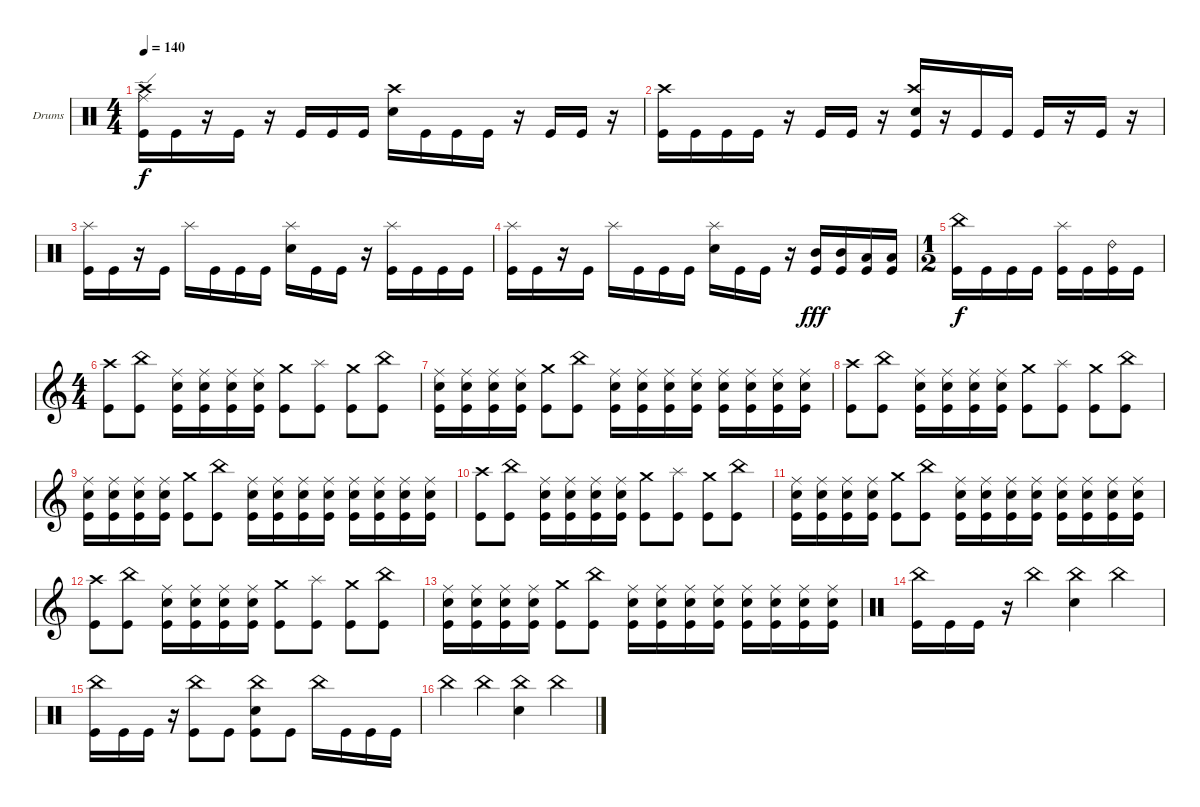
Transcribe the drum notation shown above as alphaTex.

\defaultSystemsLayout 4
\bracketExtendMode groupsimilarinstruments
\firstSystemTrackNameOrientation horizontal
\otherSystemsTrackNameOrientation horizontal
\track ("Drumkit" "Drums") {instrument percussion}
\staff {score}
\articulation defaults
\ts (4 4)
\tempo 140
\clef neutral
\scale
0.333333
\ks c
("Kick (hit)" "Crash high (hit)" "Ride (edge)").16{dy f} "Kick (hit)".16 r.16 "Kick (hit)".16 r.16 "Kick (hit)".16 "Kick (hit)".16 "Kick (hit)".16 ("Snare (hit) 2" "Crash high (hit)").16 "Kick (hit)".16 "Kick (hit)".16 "Kick (hit)".16 r.16 "Kick (hit)".16 "Kick (hit)".16 r.16 |
\scale
0.333333 ("Kick (hit)" "Crash high (hit)").16 "Kick (hit)".16 "Kick (hit)".16 "Kick (hit)".16 r.16 "Kick (hit)".16 "Kick (hit)".16 r.16 ("Kick (hit)" "Snare (hit) 2" "Crash high (hit)").16 r.16 "Kick (hit)".16 "Kick (hit)".16 "Kick (hit)".16 r.16 "Kick (hit)".16 r.16 |
\scale
0.333333 ("Kick (hit)" "Splash (hit)").16 "Kick (hit)".16 r.16 "Kick (hit)".16 "Splash (hit)".16 "Kick (hit)".16 "Kick (hit)".16 "Kick (hit)".16 ("Splash (hit)" "Snare (hit) 2").16 "Kick (hit)".16 "Kick (hit)".16 r.16 ("Splash (hit)" "Kick (hit)").16 "Kick (hit)".16 "Kick (hit)".16 "Kick (hit)".16 |
\scale
0.218391 ("Kick (hit)" "Splash (hit)").16 "Kick (hit)".16 r.16 "Kick (hit)".16 "Splash (hit)".16 "Kick (hit)".16 "Kick (hit)".16 "Kick (hit)".16 ("Splash (hit)" "Snare (hit) 2").16 "Kick (hit)".16 "Kick (hit)".16 r.16 ("Kick (hit)" "Mid Tom (hit)").16{dy fff} ("Kick (hit)" "Mid Tom (hit)").16 ("Kick (hit)" "Low Tom (hit)").16 ("Kick (hit)" "Low Tom (hit)").16 |
\ts (1 2)
\scale
0.390805 ("Kick (hit)" "China (hit)").16{dy f} "Kick (hit)".16 "Kick (hit)".16 "Kick (hit)".16 ("Kick (hit)" "Splash (hit)").16 "Kick (hit)".16 ("Kick (hit)" "Ride (bell) 2").16 "Kick (hit)".16 |
\ts (4 4)
\clef g2
\scale
0.390805 ("Kick (hit)" "Crash high (hit)").8 ("Kick (hit)" "China (hit)").8 ("Kick (hit)" "Snare (hit) 2" "Ride (middle)").16 ("Kick (hit)" "Snare (hit) 2" "Ride (middle)").16 ("Kick (hit)" "Snare (hit) 2" "Ride (middle)").16 ("Kick (hit)" "Snare (hit) 2" "Ride (middle)").16 ("Kick (hit)" "Crash medium (hit)").8 ("Kick (hit)" "Splash (hit)").8 ("Kick (hit)" "Crash medium (hit)").8 ("Kick (hit)" "China (hit)").8 |
\scale
0.333333 ("Kick (hit)" "Snare (hit) 2" "Ride (middle)").16 ("Kick (hit)" "Snare (hit) 2" "Ride (middle)").16 ("Kick (hit)" "Snare (hit) 2" "Ride (middle)").16 ("Kick (hit)" "Snare (hit) 2" "Ride (middle)").16 ("Kick (hit)" "Crash medium (hit)").8 ("Kick (hit)" "China (hit)").8 ("Kick (hit)" "Snare (hit) 2" "Ride (middle)").16 ("Kick (hit)" "Snare (hit) 2" "Ride (middle)").16 ("Kick (hit)" "Snare (hit) 2" "Ride (middle)").16 ("Kick (hit)" "Snare (hit) 2" "Ride (middle)").16 ("Kick (hit)" "Snare (hit) 2" "Ride (middle)").16 ("Kick (hit)" "Snare (hit) 2" "Ride (middle)").16 ("Kick (hit)" "Snare (hit) 2" "Ride (middle)").16 ("Kick (hit)" "Snare (hit) 2" "Ride (middle)").16 |
\scale
0.333333 ("Kick (hit)" "Crash high (hit)").8 ("Kick (hit)" "China (hit)").8 ("Kick (hit)" "Snare (hit) 2" "Ride (middle)").16 ("Kick (hit)" "Snare (hit) 2" "Ride (middle)").16 ("Kick (hit)" "Snare (hit) 2" "Ride (middle)").16 ("Kick (hit)" "Snare (hit) 2" "Ride (middle)").16 ("Kick (hit)" "Crash medium (hit)").8 ("Kick (hit)" "Splash (hit)").8 ("Kick (hit)" "Crash medium (hit)").8 ("Kick (hit)" "China (hit)").8 |
\scale
0.333333 ("Kick (hit)" "Snare (hit) 2" "Ride (middle)").16 ("Kick (hit)" "Snare (hit) 2" "Ride (middle)").16 ("Kick (hit)" "Snare (hit) 2" "Ride (middle)").16 ("Kick (hit)" "Snare (hit) 2" "Ride (middle)").16 ("Kick (hit)" "Crash medium (hit)").8 ("Kick (hit)" "China (hit)").8 ("Kick (hit)" "Snare (hit) 2" "Ride (middle)").16 ("Kick (hit)" "Snare (hit) 2" "Ride (middle)").16 ("Kick (hit)" "Snare (hit) 2" "Ride (middle)").16 ("Kick (hit)" "Snare (hit) 2" "Ride (middle)").16 ("Kick (hit)" "Snare (hit) 2" "Ride (middle)").16 ("Kick (hit)" "Snare (hit) 2" "Ride (middle)").16 ("Kick (hit)" "Snare (hit) 2" "Ride (middle)").16 ("Kick (hit)" "Snare (hit) 2" "Ride (middle)").16 |
\scale
0.333333 ("Kick (hit)" "Crash high (hit)").8 ("Kick (hit)" "China (hit)").8 ("Kick (hit)" "Snare (hit) 2" "Ride (middle)").16 ("Kick (hit)" "Snare (hit) 2" "Ride (middle)").16 ("Kick (hit)" "Snare (hit) 2" "Ride (middle)").16 ("Kick (hit)" "Snare (hit) 2" "Ride (middle)").16 ("Kick (hit)" "Crash medium (hit)").8 ("Kick (hit)" "Splash (hit)").8 ("Kick (hit)" "Crash medium (hit)").8 ("Kick (hit)" "China (hit)").8 |
\scale
0.333333 ("Kick (hit)" "Snare (hit) 2" "Ride (middle)").16 ("Kick (hit)" "Snare (hit) 2" "Ride (middle)").16 ("Kick (hit)" "Snare (hit) 2" "Ride (middle)").16 ("Kick (hit)" "Snare (hit) 2" "Ride (middle)").16 ("Kick (hit)" "Crash medium (hit)").8 ("Kick (hit)" "China (hit)").8 ("Kick (hit)" "Snare (hit) 2" "Ride (middle)").16 ("Kick (hit)" "Snare (hit) 2" "Ride (middle)").16 ("Kick (hit)" "Snare (hit) 2" "Ride (middle)").16 ("Kick (hit)" "Snare (hit) 2" "Ride (middle)").16 ("Kick (hit)" "Snare (hit) 2" "Ride (middle)").16 ("Kick (hit)" "Snare (hit) 2" "Ride (middle)").16 ("Kick (hit)" "Snare (hit) 2" "Ride (middle)").16 ("Kick (hit)" "Snare (hit) 2" "Ride (middle)").16 |
\scale
0.333333 ("Kick (hit)" "Crash high (hit)").8 ("Kick (hit)" "China (hit)").8 ("Kick (hit)" "Snare (hit) 2" "Ride (middle)").16 ("Kick (hit)" "Snare (hit) 2" "Ride (middle)").16 ("Kick (hit)" "Snare (hit) 2" "Ride (middle)").16 ("Kick (hit)" "Snare (hit) 2" "Ride (middle)").16 ("Kick (hit)" "Crash medium (hit)").8 ("Kick (hit)" "Splash (hit)").8 ("Kick (hit)" "Crash medium (hit)").8 ("Kick (hit)" "China (hit)").8 |
\scale
0.333333 ("Kick (hit)" "Snare (hit) 2" "Ride (middle)").16 ("Kick (hit)" "Snare (hit) 2" "Ride (middle)").16 ("Kick (hit)" "Snare (hit) 2" "Ride (middle)").16 ("Kick (hit)" "Snare (hit) 2" "Ride (middle)").16 ("Kick (hit)" "Crash medium (hit)").8 ("Kick (hit)" "China (hit)").8 ("Kick (hit)" "Snare (hit) 2" "Ride (middle)").16 ("Kick (hit)" "Snare (hit) 2" "Ride (middle)").16 ("Kick (hit)" "Snare (hit) 2" "Ride (middle)").16 ("Kick (hit)" "Snare (hit) 2" "Ride (middle)").16 ("Kick (hit)" "Snare (hit) 2" "Ride (middle)").16 ("Kick (hit)" "Snare (hit) 2" "Ride (middle)").16 ("Kick (hit)" "Snare (hit) 2" "Ride (middle)").16 ("Kick (hit)" "Snare (hit) 2" "Ride (middle)").16 |
\clef neutral
\scale
0.333333 ("Kick (hit)" "China (hit)").16 "Kick (hit)".16 "Kick (hit)".16 r.16 "China (hit)".4 ("China (hit)" "Snare (hit) 2").4 "China (hit)".4 |
\scale
0.333333 ("Kick (hit)" "China (hit)").16 "Kick (hit)".16 "Kick (hit)".16 r.16 ("Kick (hit)" "China (hit)").8 "Kick (hit)".8 ("Kick (hit)" "China (hit)" "Snare (hit) 2").8 "Kick (hit)".8 "China (hit)".16 "Kick (hit)".16 "Kick (hit)".16 "Kick (hit)".16 |
\scale
0.333333 "China (hit)".4 "China (hit)".4 ("China (hit)" "Snare (hit) 2").4 "China (hit)".4
